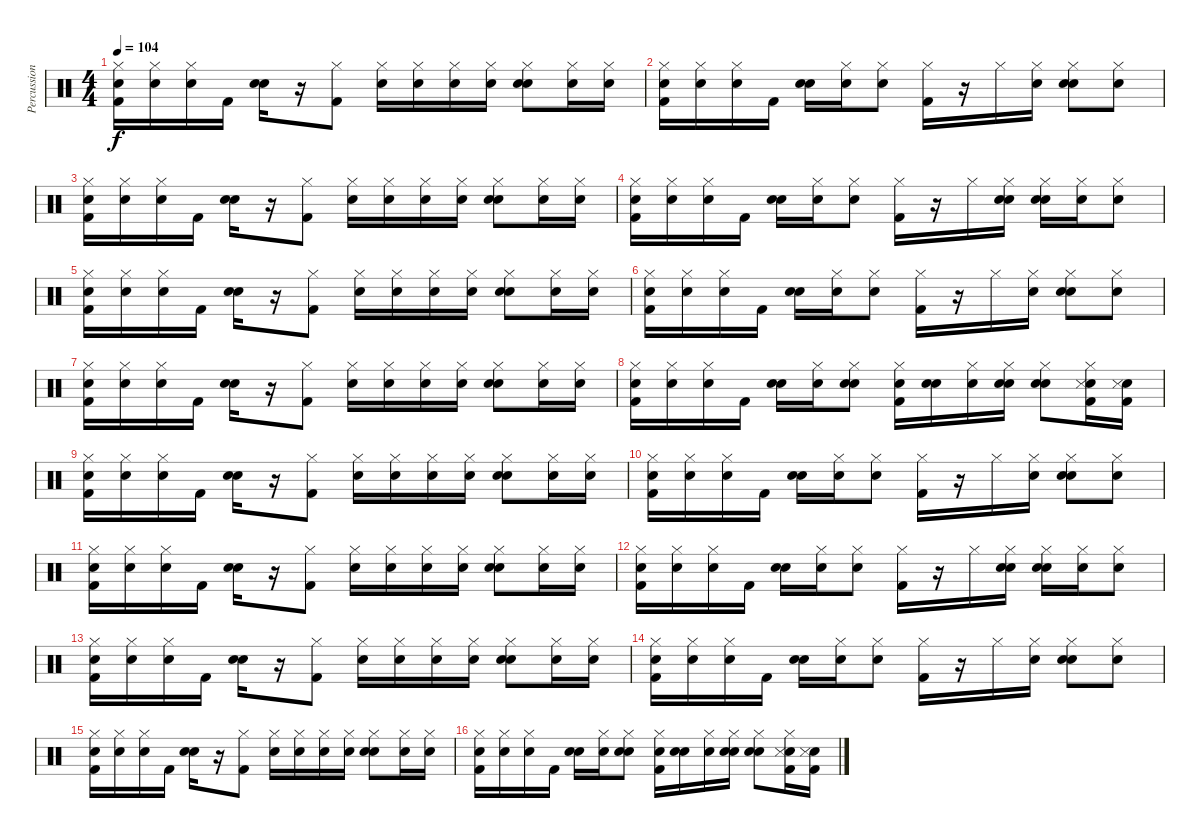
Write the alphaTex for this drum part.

\track ("Percussion" "Percussion") {instrument percussion}
\staff {score}
\articulation defaults
\ts (4 4)
\tempo 104
\clef neutral
\ks c
("Snare (hit)" "Kick (hit) 2" "Hi-Hat (closed)").16{dy f} ("Snare (hit)" "Hi-Hat (closed)").16 ("Snare (hit)" "Hi-Hat (closed)").16 "Kick (hit) 2".16 ("Snare (hit)" "Electric Snare (hit)").16 r.16 ("Hi-Hat (closed)" "Kick (hit) 2").8 ("Snare (hit)" "Hi-Hat (closed)").16 ("Snare (hit)" "Hi-Hat (closed)").16 ("Snare (hit)" "Hi-Hat (closed)").16 ("Snare (hit)" "Hi-Hat (closed)").16 ("Snare (hit)" "Hi-Hat (closed)" "Electric Snare (hit)").8 ("Snare (hit)" "Hi-Hat (closed)").16 ("Snare (hit)" "Hi-Hat (closed)").16 |
("Snare (hit)" "Hi-Hat (closed)" "Kick (hit) 2").16 ("Snare (hit)" "Hi-Hat (closed)").16 ("Snare (hit)" "Hi-Hat (closed)").16 "Kick (hit) 2".16 ("Snare (hit)" "Electric Snare (hit)").16 ("Snare (hit)" "Hi-Hat (closed)").16 ("Snare (hit)" "Hi-Hat (closed)").8 ("Kick (hit) 2" "Hi-Hat (closed)").16 r.16 "Hi-Hat (closed)".16 ("Snare (hit)" "Hi-Hat (closed)").16 ("Snare (hit)" "Electric Snare (hit)" "Hi-Hat (closed)").8 ("Snare (hit)" "Hi-Hat (closed)").8 |
("Snare (hit)" "Kick (hit) 2" "Hi-Hat (closed)").16 ("Snare (hit)" "Hi-Hat (closed)").16 ("Snare (hit)" "Hi-Hat (closed)").16 "Kick (hit) 2".16 ("Snare (hit)" "Electric Snare (hit)").16 r.16 ("Hi-Hat (closed)" "Kick (hit) 2").8 ("Snare (hit)" "Hi-Hat (closed)").16 ("Snare (hit)" "Hi-Hat (closed)").16 ("Snare (hit)" "Hi-Hat (closed)").16 ("Snare (hit)" "Hi-Hat (closed)").16 ("Snare (hit)" "Hi-Hat (closed)" "Electric Snare (hit)").8 ("Snare (hit)" "Hi-Hat (closed)").16 ("Snare (hit)" "Hi-Hat (closed)").16 |
("Snare (hit)" "Kick (hit) 2" "Hi-Hat (closed)").16 ("Snare (hit)" "Hi-Hat (closed)").16 ("Snare (hit)" "Hi-Hat (closed)").16 "Kick (hit) 2".16 ("Snare (hit)" "Electric Snare (hit)").16 ("Snare (hit)" "Hi-Hat (closed)").16 ("Snare (hit)" "Hi-Hat (closed)").8 ("Hi-Hat (closed)" "Kick (hit) 2").16 r.16 "Hi-Hat (closed)".16 ("Snare (hit)" "Hi-Hat (closed)" "Electric Snare (hit)").16 ("Snare (hit)" "Hi-Hat (closed)" "Electric Snare (hit)").16 ("Snare (hit)" "Hi-Hat (closed)").16 ("Snare (hit)" "Hi-Hat (closed)").8 |
("Snare (hit)" "Hi-Hat (closed)" "Kick (hit) 2").16 ("Snare (hit)" "Hi-Hat (closed)").16 ("Snare (hit)" "Hi-Hat (closed)").16 "Kick (hit) 2".16 ("Snare (hit)" "Electric Snare (hit)").16 r.16 ("Kick (hit) 2" "Hi-Hat (closed)").8 ("Snare (hit)" "Hi-Hat (closed)").16 ("Snare (hit)" "Hi-Hat (closed)").16 ("Snare (hit)" "Hi-Hat (closed)").16 ("Snare (hit)" "Hi-Hat (closed)").16 ("Snare (hit)" "Electric Snare (hit)" "Hi-Hat (closed)").8 ("Snare (hit)" "Hi-Hat (closed)").16 ("Snare (hit)" "Hi-Hat (closed)").16 |
("Snare (hit)" "Kick (hit) 2" "Hi-Hat (closed)").16 ("Snare (hit)" "Hi-Hat (closed)").16 ("Snare (hit)" "Hi-Hat (closed)").16 "Kick (hit) 2".16 ("Snare (hit)" "Electric Snare (hit)").16 ("Snare (hit)" "Hi-Hat (closed)").16 ("Snare (hit)" "Hi-Hat (closed)").8 ("Hi-Hat (closed)" "Kick (hit) 2").16 r.16 "Hi-Hat (closed)".16 ("Snare (hit)" "Hi-Hat (closed)").16 ("Snare (hit)" "Hi-Hat (closed)" "Electric Snare (hit)").8 ("Snare (hit)" "Hi-Hat (closed)").8 |
("Snare (hit)" "Hi-Hat (closed)" "Kick (hit) 2").16 ("Snare (hit)" "Hi-Hat (closed)").16 ("Snare (hit)" "Hi-Hat (closed)").16 "Kick (hit) 2".16 ("Snare (hit)" "Electric Snare (hit)").16 r.16 ("Kick (hit) 2" "Hi-Hat (closed)").8 ("Snare (hit)" "Hi-Hat (closed)").16 ("Snare (hit)" "Hi-Hat (closed)").16 ("Snare (hit)" "Hi-Hat (closed)").16 ("Snare (hit)" "Hi-Hat (closed)").16 ("Snare (hit)" "Electric Snare (hit)" "Hi-Hat (closed)").8 ("Snare (hit)" "Hi-Hat (closed)").16 ("Snare (hit)" "Hi-Hat (closed)").16 |
("Snare (hit)" "Kick (hit) 2" "Hi-Hat (closed)").16 ("Snare (hit)" "Hi-Hat (closed)").16 ("Snare (hit)" "Hi-Hat (closed)").16 "Kick (hit) 2".16 ("Snare (hit)" "Electric Snare (hit)").16 ("Snare (hit)" "Hi-Hat (closed)").16 ("Snare (hit)" "Electric Snare (hit)" "Hi-Hat (closed)").8 ("Snare (hit)" "Hi-Hat (closed)" "Kick (hit) 2").16 ("Snare (hit)" "Electric Snare (hit)").16 ("Snare (hit)" "Hi-Hat (closed)").16 ("Snare (hit)" "Hi-Hat (closed)" "Electric Snare (hit)").16 ("Snare (hit)" "Hi-Hat (closed)" "Electric Snare (hit)").8 ("Snare (hit)" "Metronome (hit)" "Hi-Hat (closed)" "Kick (hit) 2").16 ("Snare (hit)" "Metronome (hit)" "Kick (hit) 2").16 |
("Snare (hit)" "Hi-Hat (closed)" "Kick (hit) 2").16 ("Snare (hit)" "Hi-Hat (closed)").16 ("Snare (hit)" "Hi-Hat (closed)").16 "Kick (hit) 2".16 ("Snare (hit)" "Electric Snare (hit)").16 r.16 ("Kick (hit) 2" "Hi-Hat (closed)").8 ("Snare (hit)" "Hi-Hat (closed)").16 ("Snare (hit)" "Hi-Hat (closed)").16 ("Snare (hit)" "Hi-Hat (closed)").16 ("Snare (hit)" "Hi-Hat (closed)").16 ("Snare (hit)" "Hi-Hat (closed)" "Electric Snare (hit)").8 ("Snare (hit)" "Hi-Hat (closed)").16 ("Snare (hit)" "Hi-Hat (closed)").16 |
("Snare (hit)" "Kick (hit) 2" "Hi-Hat (closed)").16 ("Snare (hit)" "Hi-Hat (closed)").16 ("Snare (hit)" "Hi-Hat (closed)").16 "Kick (hit) 2".16 ("Snare (hit)" "Electric Snare (hit)").16 ("Snare (hit)" "Hi-Hat (closed)").16 ("Snare (hit)" "Hi-Hat (closed)").8 ("Hi-Hat (closed)" "Kick (hit) 2").16 r.16 "Hi-Hat (closed)".16 ("Snare (hit)" "Hi-Hat (closed)").16 ("Snare (hit)" "Hi-Hat (closed)" "Electric Snare (hit)").8 ("Snare (hit)" "Hi-Hat (closed)").8 |
("Snare (hit)" "Hi-Hat (closed)" "Kick (hit) 2").16 ("Snare (hit)" "Hi-Hat (closed)").16 ("Snare (hit)" "Hi-Hat (closed)").16 "Kick (hit) 2".16 ("Snare (hit)" "Electric Snare (hit)").16 r.16 ("Kick (hit) 2" "Hi-Hat (closed)").8 ("Snare (hit)" "Hi-Hat (closed)").16 ("Snare (hit)" "Hi-Hat (closed)").16 ("Snare (hit)" "Hi-Hat (closed)").16 ("Snare (hit)" "Hi-Hat (closed)").16 ("Snare (hit)" "Electric Snare (hit)" "Hi-Hat (closed)").8 ("Snare (hit)" "Hi-Hat (closed)").16 ("Snare (hit)" "Hi-Hat (closed)").16 |
("Snare (hit)" "Hi-Hat (closed)" "Kick (hit) 2").16 ("Snare (hit)" "Hi-Hat (closed)").16 ("Snare (hit)" "Hi-Hat (closed)").16 "Kick (hit) 2".16 ("Snare (hit)" "Electric Snare (hit)").16 ("Snare (hit)" "Hi-Hat (closed)").16 ("Snare (hit)" "Hi-Hat (closed)").8 ("Kick (hit) 2" "Hi-Hat (closed)").16 r.16 "Hi-Hat (closed)".16 ("Snare (hit)" "Electric Snare (hit)" "Hi-Hat (closed)").16 ("Snare (hit)" "Electric Snare (hit)" "Hi-Hat (closed)").16 ("Snare (hit)" "Hi-Hat (closed)").16 ("Snare (hit)" "Hi-Hat (closed)").8 |
("Snare (hit)" "Kick (hit) 2" "Hi-Hat (closed)").16 ("Snare (hit)" "Hi-Hat (closed)").16 ("Snare (hit)" "Hi-Hat (closed)").16 "Kick (hit) 2".16 ("Snare (hit)" "Electric Snare (hit)").16 r.16 ("Hi-Hat (closed)" "Kick (hit) 2").8 ("Snare (hit)" "Hi-Hat (closed)").16 ("Snare (hit)" "Hi-Hat (closed)").16 ("Snare (hit)" "Hi-Hat (closed)").16 ("Snare (hit)" "Hi-Hat (closed)").16 ("Snare (hit)" "Hi-Hat (closed)" "Electric Snare (hit)").8 ("Snare (hit)" "Hi-Hat (closed)").16 ("Snare (hit)" "Hi-Hat (closed)").16 |
("Snare (hit)" "Hi-Hat (closed)" "Kick (hit) 2").16 ("Snare (hit)" "Hi-Hat (closed)").16 ("Snare (hit)" "Hi-Hat (closed)").16 "Kick (hit) 2".16 ("Snare (hit)" "Electric Snare (hit)").16 ("Snare (hit)" "Hi-Hat (closed)").16 ("Snare (hit)" "Hi-Hat (closed)").8 ("Kick (hit) 2" "Hi-Hat (closed)").16 r.16 "Hi-Hat (closed)".16 ("Snare (hit)" "Hi-Hat (closed)").16 ("Snare (hit)" "Electric Snare (hit)" "Hi-Hat (closed)").8 ("Snare (hit)" "Hi-Hat (closed)").8 |
("Snare (hit)" "Kick (hit) 2" "Hi-Hat (closed)").16 ("Snare (hit)" "Hi-Hat (closed)").16 ("Snare (hit)" "Hi-Hat (closed)").16 "Kick (hit) 2".16 ("Snare (hit)" "Electric Snare (hit)").16 r.16 ("Hi-Hat (closed)" "Kick (hit) 2").8 ("Snare (hit)" "Hi-Hat (closed)").16 ("Snare (hit)" "Hi-Hat (closed)").16 ("Snare (hit)" "Hi-Hat (closed)").16 ("Snare (hit)" "Hi-Hat (closed)").16 ("Snare (hit)" "Hi-Hat (closed)" "Electric Snare (hit)").8 ("Snare (hit)" "Hi-Hat (closed)").16 ("Snare (hit)" "Hi-Hat (closed)").16 |
("Snare (hit)" "Hi-Hat (closed)" "Kick (hit) 2").16 ("Snare (hit)" "Hi-Hat (closed)").16 ("Snare (hit)" "Hi-Hat (closed)").16 "Kick (hit) 2".16 ("Snare (hit)" "Electric Snare (hit)").16 ("Snare (hit)" "Hi-Hat (closed)").16 ("Snare (hit)" "Hi-Hat (closed)" "Electric Snare (hit)").8 ("Snare (hit)" "Kick (hit) 2" "Hi-Hat (closed)").16 ("Snare (hit)" "Electric Snare (hit)").16 ("Snare (hit)" "Hi-Hat (closed)").16 ("Snare (hit)" "Electric Snare (hit)" "Hi-Hat (closed)").16 ("Snare (hit)" "Electric Snare (hit)" "Hi-Hat (closed)").8 ("Snare (hit)" "Kick (hit) 2" "Hi-Hat (closed)" "Metronome (hit)").16 ("Snare (hit)" "Kick (hit) 2" "Metronome (hit)").16
